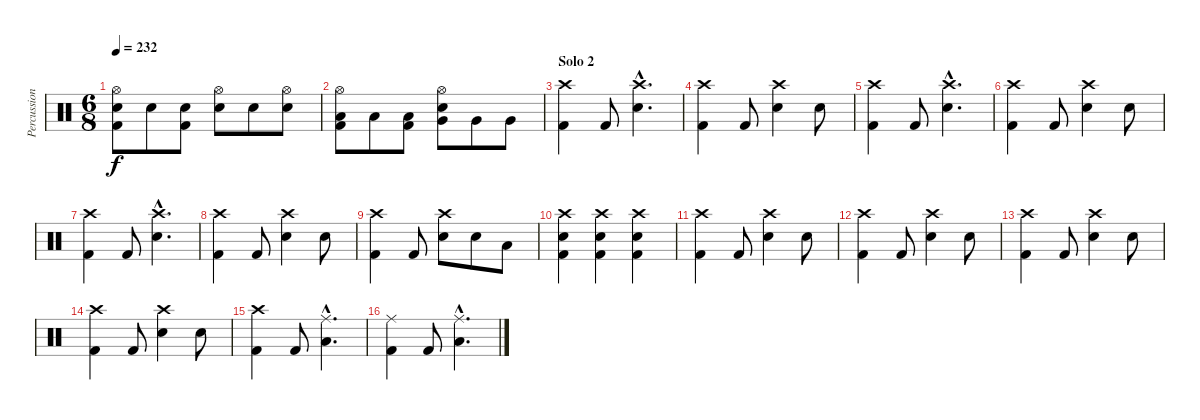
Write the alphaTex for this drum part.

\track ("Percussion" "Percussion") {instrument percussion}
\staff {score}
\articulation defaults
\ts (6 8)
\tempo 232
\clef neutral
\ks c
("Hi-Hat (open)" "Electric Snare (hit)" "Kick (hit) 2").8{dy f} "Electric Snare (hit)".8 ("Electric Snare (hit)" "Kick (hit) 2").8 ("Hi-Hat (open)" "Electric Snare (hit)").8 "Electric Snare (hit)".8 ("Hi-Hat (open)" "Electric Snare (hit)").8 |
("Hi-Hat (open)" "Low Tom (hit)" "Kick (hit) 2").8 "Low Tom (hit)".8 ("Low Tom (hit)" "Kick (hit) 2").8 ("Hi-Hat (open)" "Electric Snare (hit)" "Very Low Tom (hit)").8 "Very Low Tom (hit)".8 "Very Low Tom (hit)".8 |
\section ("" "Solo 2")
("Crash high (hit)" "Kick (hit) 2").4 "Kick (hit) 2".8 ("Crash high (hit)"{hac} "Electric Snare (hit)"{hac}).4{d} |
("Crash high (hit)" "Kick (hit) 2").4 "Kick (hit) 2".8 ("Crash high (hit)" "Electric Snare (hit)").4 "Electric Snare (hit)".8 |
("Crash high (hit)" "Kick (hit) 2").4 "Kick (hit) 2".8 ("Crash high (hit)"{hac} "Electric Snare (hit)"{hac}).4{d} |
("Crash high (hit)" "Kick (hit) 2").4 "Kick (hit) 2".8 ("Crash high (hit)" "Electric Snare (hit)").4 "Electric Snare (hit)".8 |
("Crash high (hit)" "Kick (hit) 2").4 "Kick (hit) 2".8 ("Crash high (hit)"{hac} "Electric Snare (hit)"{hac}).4{d} |
("Crash high (hit)" "Kick (hit) 2").4 "Kick (hit) 2".8 ("Crash high (hit)" "Electric Snare (hit)").4 "Electric Snare (hit)".8 |
("Crash high (hit)" "Kick (hit) 2").4 "Kick (hit) 2".8 ("Crash high (hit)" "Electric Snare (hit)").8 "Electric Snare (hit)".8 "Low Tom (hit)".8 |
("Crash high (hit)" "Electric Snare (hit)" "Kick (hit) 2").4 ("Crash high (hit)" "Electric Snare (hit)" "Kick (hit) 2").4 ("Crash high (hit)" "Electric Snare (hit)" "Kick (hit) 2").4 |
("Crash high (hit)" "Kick (hit) 2").4 "Kick (hit) 2".8 ("Crash high (hit)" "Electric Snare (hit)").4 "Electric Snare (hit)".8 |
("Crash high (hit)" "Kick (hit) 2").4 "Kick (hit) 2".8 ("Crash high (hit)" "Electric Snare (hit)").4 "Electric Snare (hit)".8 |
("Crash high (hit)" "Kick (hit) 2").4 "Kick (hit) 2".8 ("Crash high (hit)" "Electric Snare (hit)").4 "Electric Snare (hit)".8 |
("Crash high (hit)" "Kick (hit) 2").4 "Kick (hit) 2".8 ("Crash high (hit)" "Electric Snare (hit)").4 "Electric Snare (hit)".8 |
("Crash high (hit)" "Kick (hit) 2").4 "Kick (hit) 2".8 ("Ride (middle)"{hac} "Low Tom (hit)"{hac}).4{d} |
("Ride (middle)" "Kick (hit) 2").4 "Kick (hit) 2".8 ("Ride (middle)"{hac} "Low Tom (hit)"{hac}).4{d}
